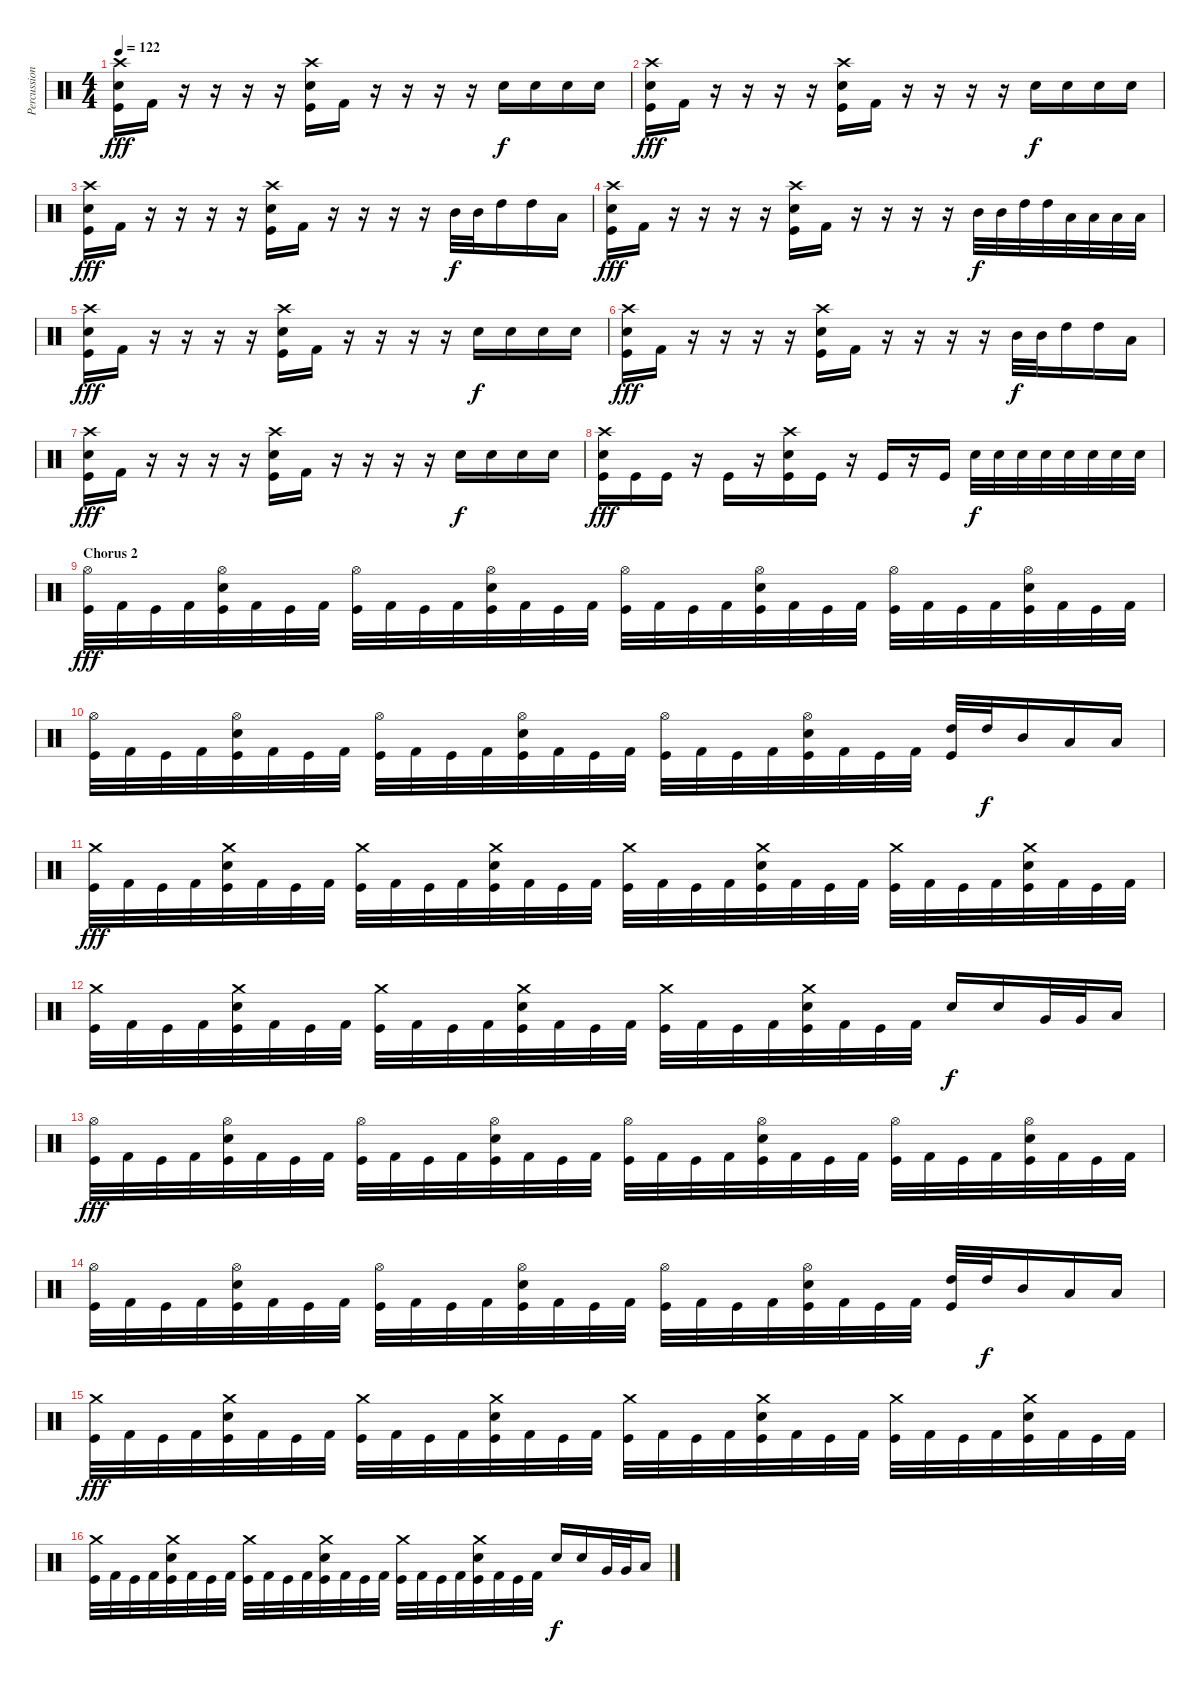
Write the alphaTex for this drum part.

\track ("Percussion" "Percussion") {instrument percussion}
\staff {score}
\articulation defaults
\ts (4 4)
\tempo 122
\clef neutral
\ks c
("Crash high (hit)" "Snare (hit) 2" "Kick (hit)").16{dy fff volume 14} "Kick (hit) 2".16 r.16 r.16 r.16 r.16 ("Crash high (hit)" "Snare (hit) 2" "Kick (hit)").16 "Kick (hit) 2".16 r.16 r.16 r.16 r.16 "Snare (hit) 2".16{dy f} "Snare (hit) 2".16 "Snare (hit) 2".16 "Snare (hit) 2".16 |
("Crash high (hit)" "Snare (hit) 2" "Kick (hit)").16{dy fff} "Kick (hit) 2".16 r.16 r.16 r.16 r.16 ("Crash high (hit)" "Snare (hit) 2" "Kick (hit)").16 "Kick (hit) 2".16 r.16 r.16 r.16 r.16 "Snare (hit) 2".16{dy f} "Snare (hit) 2".16 "Snare (hit) 2".16 "Snare (hit) 2".16 |
("Crash high (hit)" "Snare (hit) 2" "Kick (hit)").16{dy fff} "Kick (hit) 2".16 r.16 r.16 r.16 r.16 ("Crash high (hit)" "Snare (hit) 2" "Kick (hit)").16 "Kick (hit) 2".16 r.16 r.16 r.16 r.16 "Mid Tom (hit)".32{dy f} "Mid Tom (hit)".32 "High Tom (hit)".16 "High Tom (hit)".16 "Low Tom (hit)".16 |
("Crash high (hit)" "Snare (hit) 2" "Kick (hit)").16{dy fff} "Kick (hit) 2".16 r.16 r.16 r.16 r.16 ("Crash high (hit)" "Snare (hit) 2" "Kick (hit)").16 "Kick (hit) 2".16 r.16 r.16 r.16 r.16 "Mid Tom (hit)".32{dy f} "Mid Tom (hit)".32 "High Tom (hit)".32 "High Tom (hit)".32 "Low Tom (hit)".32 "Low Tom (hit)".32 "Low Tom (hit)".32 "Low Tom (hit)".32 |
("Crash high (hit)" "Snare (hit) 2" "Kick (hit)").16{dy fff} "Kick (hit) 2".16 r.16 r.16 r.16 r.16 ("Crash high (hit)" "Snare (hit) 2" "Kick (hit)").16 "Kick (hit) 2".16 r.16 r.16 r.16 r.16 "Snare (hit) 2".16{dy f} "Snare (hit) 2".16 "Snare (hit) 2".16 "Snare (hit) 2".16 |
("Crash high (hit)" "Snare (hit) 2" "Kick (hit)").16{dy fff} "Kick (hit) 2".16 r.16 r.16 r.16 r.16 ("Crash high (hit)" "Snare (hit) 2" "Kick (hit)").16 "Kick (hit) 2".16 r.16 r.16 r.16 r.16 "Mid Tom (hit)".32{dy f} "Mid Tom (hit)".32 "High Tom (hit)".16 "High Tom (hit)".16 "Low Tom (hit)".16 |
("Crash high (hit)" "Snare (hit) 2" "Kick (hit)").16{dy fff} "Kick (hit) 2".16 r.16 r.16 r.16 r.16 ("Crash high (hit)" "Snare (hit) 2" "Kick (hit)").16 "Kick (hit) 2".16 r.16 r.16 r.16 r.16 "Snare (hit) 2".16{dy f} "Snare (hit) 2".16 "Snare (hit) 2".16 "Snare (hit) 2".16 |
("Crash high (hit)" "Snare (hit) 2" "Kick (hit)").16{dy fff} "Kick (hit)".16 "Kick (hit)".16 r.16 "Kick (hit)".16 r.16 ("Crash high (hit)" "Snare (hit) 2" "Kick (hit)").16 "Kick (hit)".16 r.16 "Kick (hit)".16 r.16 "Kick (hit)".16 "Snare (hit) 2".32{dy f} "Snare (hit) 2".32 "Snare (hit) 2".32 "Snare (hit) 2".32 "Snare (hit) 2".32 "Snare (hit) 2".32 "Snare (hit) 2".32 "Snare (hit) 2".32 |
\section ("" "Chorus 2")
("Hi-Hat (open)" "Kick (hit)").32{dy fff volume 16} "Kick (hit) 2".32 "Kick (hit)".32 "Kick (hit) 2".32 ("Hi-Hat (open)" "Snare (hit) 2" "Kick (hit)").32 "Kick (hit) 2".32 "Kick (hit)".32 "Kick (hit) 2".32 ("Hi-Hat (open)" "Kick (hit)").32 "Kick (hit) 2".32 "Kick (hit)".32 "Kick (hit) 2".32 ("Hi-Hat (open)" "Snare (hit) 2" "Kick (hit)").32 "Kick (hit) 2".32 "Kick (hit)".32 "Kick (hit) 2".32 ("Hi-Hat (open)" "Kick (hit)").32 "Kick (hit) 2".32 "Kick (hit)".32 "Kick (hit) 2".32 ("Hi-Hat (open)" "Snare (hit) 2" "Kick (hit)").32 "Kick (hit) 2".32 "Kick (hit)".32 "Kick (hit) 2".32 ("Hi-Hat (open)" "Kick (hit)").32 "Kick (hit) 2".32 "Kick (hit)".32 "Kick (hit) 2".32 ("Hi-Hat (open)" "Snare (hit) 2" "Kick (hit)").32 "Kick (hit) 2".32 "Kick (hit)".32 "Kick (hit) 2".32 |
("Hi-Hat (open)" "Kick (hit)").32 "Kick (hit) 2".32 "Kick (hit)".32 "Kick (hit) 2".32 ("Hi-Hat (open)" "Snare (hit) 2" "Kick (hit)").32 "Kick (hit) 2".32 "Kick (hit)".32 "Kick (hit) 2".32 ("Hi-Hat (open)" "Kick (hit)").32 "Kick (hit) 2".32 "Kick (hit)".32 "Kick (hit) 2".32 ("Hi-Hat (open)" "Snare (hit) 2" "Kick (hit)").32 "Kick (hit) 2".32 "Kick (hit)".32 "Kick (hit) 2".32 ("Hi-Hat (open)" "Kick (hit)").32 "Kick (hit) 2".32 "Kick (hit)".32 "Kick (hit) 2".32 ("Hi-Hat (open)" "Snare (hit) 2" "Kick (hit)").32 "Kick (hit) 2".32 "Kick (hit)".32 "Kick (hit) 2".32 ("High Tom (hit)" "Kick (hit)").32 "High Tom (hit)".32{dy f} "Mid Tom (hit)".16 "Low Tom (hit)".16 "Low Tom (hit)".16 |
("Crash medium (hit)" "Kick (hit)").32{dy fff} "Kick (hit) 2".32 "Kick (hit)".32 "Kick (hit) 2".32 ("Crash medium (hit)" "Snare (hit) 2" "Kick (hit)").32 "Kick (hit) 2".32 "Kick (hit)".32 "Kick (hit) 2".32 ("Crash medium (hit)" "Kick (hit)").32 "Kick (hit) 2".32 "Kick (hit)".32 "Kick (hit) 2".32 ("Crash medium (hit)" "Snare (hit) 2" "Kick (hit)").32 "Kick (hit) 2".32 "Kick (hit)".32 "Kick (hit) 2".32 ("Crash medium (hit)" "Kick (hit)").32 "Kick (hit) 2".32 "Kick (hit)".32 "Kick (hit) 2".32 ("Crash medium (hit)" "Snare (hit) 2" "Kick (hit)").32 "Kick (hit) 2".32 "Kick (hit)".32 "Kick (hit) 2".32 ("Crash medium (hit)" "Kick (hit)").32 "Kick (hit) 2".32 "Kick (hit)".32 "Kick (hit) 2".32 ("Crash medium (hit)" "Snare (hit) 2" "Kick (hit)").32 "Kick (hit) 2".32 "Kick (hit)".32 "Kick (hit) 2".32 |
("Crash medium (hit)" "Kick (hit)").32 "Kick (hit) 2".32 "Kick (hit)".32 "Kick (hit) 2".32 ("Crash medium (hit)" "Snare (hit) 2" "Kick (hit)").32 "Kick (hit) 2".32 "Kick (hit)".32 "Kick (hit) 2".32 ("Crash medium (hit)" "Kick (hit)").32 "Kick (hit) 2".32 "Kick (hit)".32 "Kick (hit) 2".32 ("Crash medium (hit)" "Snare (hit) 2" "Kick (hit)").32 "Kick (hit) 2".32 "Kick (hit)".32 "Kick (hit) 2".32 ("Crash medium (hit)" "Kick (hit)").32 "Kick (hit) 2".32 "Kick (hit)".32 "Kick (hit) 2".32 ("Crash medium (hit)" "Snare (hit) 2" "Kick (hit)").32 "Kick (hit) 2".32 "Kick (hit)".32 "Kick (hit) 2".32 "Snare (hit) 2".16{dy f} "Snare (hit) 2".16 "Very Low Tom (hit)".32 "Very Low Tom (hit)".32 "Low Floor Tom (hit)".16 |
("Hi-Hat (open)" "Kick (hit)").32{dy fff} "Kick (hit) 2".32 "Kick (hit)".32 "Kick (hit) 2".32 ("Hi-Hat (open)" "Snare (hit) 2" "Kick (hit)").32 "Kick (hit) 2".32 "Kick (hit)".32 "Kick (hit) 2".32 ("Hi-Hat (open)" "Kick (hit)").32 "Kick (hit) 2".32 "Kick (hit)".32 "Kick (hit) 2".32 ("Hi-Hat (open)" "Snare (hit) 2" "Kick (hit)").32 "Kick (hit) 2".32 "Kick (hit)".32 "Kick (hit) 2".32 ("Hi-Hat (open)" "Kick (hit)").32 "Kick (hit) 2".32 "Kick (hit)".32 "Kick (hit) 2".32 ("Hi-Hat (open)" "Snare (hit) 2" "Kick (hit)").32 "Kick (hit) 2".32 "Kick (hit)".32 "Kick (hit) 2".32 ("Hi-Hat (open)" "Kick (hit)").32 "Kick (hit) 2".32 "Kick (hit)".32 "Kick (hit) 2".32 ("Hi-Hat (open)" "Snare (hit) 2" "Kick (hit)").32 "Kick (hit) 2".32 "Kick (hit)".32 "Kick (hit) 2".32 |
("Hi-Hat (open)" "Kick (hit)").32 "Kick (hit) 2".32 "Kick (hit)".32 "Kick (hit) 2".32 ("Hi-Hat (open)" "Snare (hit) 2" "Kick (hit)").32 "Kick (hit) 2".32 "Kick (hit)".32 "Kick (hit) 2".32 ("Hi-Hat (open)" "Kick (hit)").32 "Kick (hit) 2".32 "Kick (hit)".32 "Kick (hit) 2".32 ("Hi-Hat (open)" "Snare (hit) 2" "Kick (hit)").32 "Kick (hit) 2".32 "Kick (hit)".32 "Kick (hit) 2".32 ("Hi-Hat (open)" "Kick (hit)").32 "Kick (hit) 2".32 "Kick (hit)".32 "Kick (hit) 2".32 ("Hi-Hat (open)" "Snare (hit) 2" "Kick (hit)").32 "Kick (hit) 2".32 "Kick (hit)".32 "Kick (hit) 2".32 ("High Tom (hit)" "Kick (hit)").32 "High Tom (hit)".32{dy f} "Mid Tom (hit)".16 "Low Tom (hit)".16 "Low Tom (hit)".16 |
("Crash medium (hit)" "Kick (hit)").32{dy fff} "Kick (hit) 2".32 "Kick (hit)".32 "Kick (hit) 2".32 ("Crash medium (hit)" "Snare (hit) 2" "Kick (hit)").32 "Kick (hit) 2".32 "Kick (hit)".32 "Kick (hit) 2".32 ("Crash medium (hit)" "Kick (hit)").32 "Kick (hit) 2".32 "Kick (hit)".32 "Kick (hit) 2".32 ("Crash medium (hit)" "Snare (hit) 2" "Kick (hit)").32 "Kick (hit) 2".32 "Kick (hit)".32 "Kick (hit) 2".32 ("Crash medium (hit)" "Kick (hit)").32 "Kick (hit) 2".32 "Kick (hit)".32 "Kick (hit) 2".32 ("Crash medium (hit)" "Snare (hit) 2" "Kick (hit)").32 "Kick (hit) 2".32 "Kick (hit)".32 "Kick (hit) 2".32 ("Crash medium (hit)" "Kick (hit)").32 "Kick (hit) 2".32 "Kick (hit)".32 "Kick (hit) 2".32 ("Crash medium (hit)" "Snare (hit) 2" "Kick (hit)").32 "Kick (hit) 2".32 "Kick (hit)".32 "Kick (hit) 2".32 |
("Crash medium (hit)" "Kick (hit)").32 "Kick (hit) 2".32 "Kick (hit)".32 "Kick (hit) 2".32 ("Crash medium (hit)" "Snare (hit) 2" "Kick (hit)").32 "Kick (hit) 2".32 "Kick (hit)".32 "Kick (hit) 2".32 ("Crash medium (hit)" "Kick (hit)").32 "Kick (hit) 2".32 "Kick (hit)".32 "Kick (hit) 2".32 ("Crash medium (hit)" "Snare (hit) 2" "Kick (hit)").32 "Kick (hit) 2".32 "Kick (hit)".32 "Kick (hit) 2".32 ("Crash medium (hit)" "Kick (hit)").32 "Kick (hit) 2".32 "Kick (hit)".32 "Kick (hit) 2".32 ("Crash medium (hit)" "Snare (hit) 2" "Kick (hit)").32 "Kick (hit) 2".32 "Kick (hit)".32 "Kick (hit) 2".32 "Snare (hit) 2".16{dy f} "Snare (hit) 2".16 "Very Low Tom (hit)".32 "Very Low Tom (hit)".32 "Low Floor Tom (hit)".16
